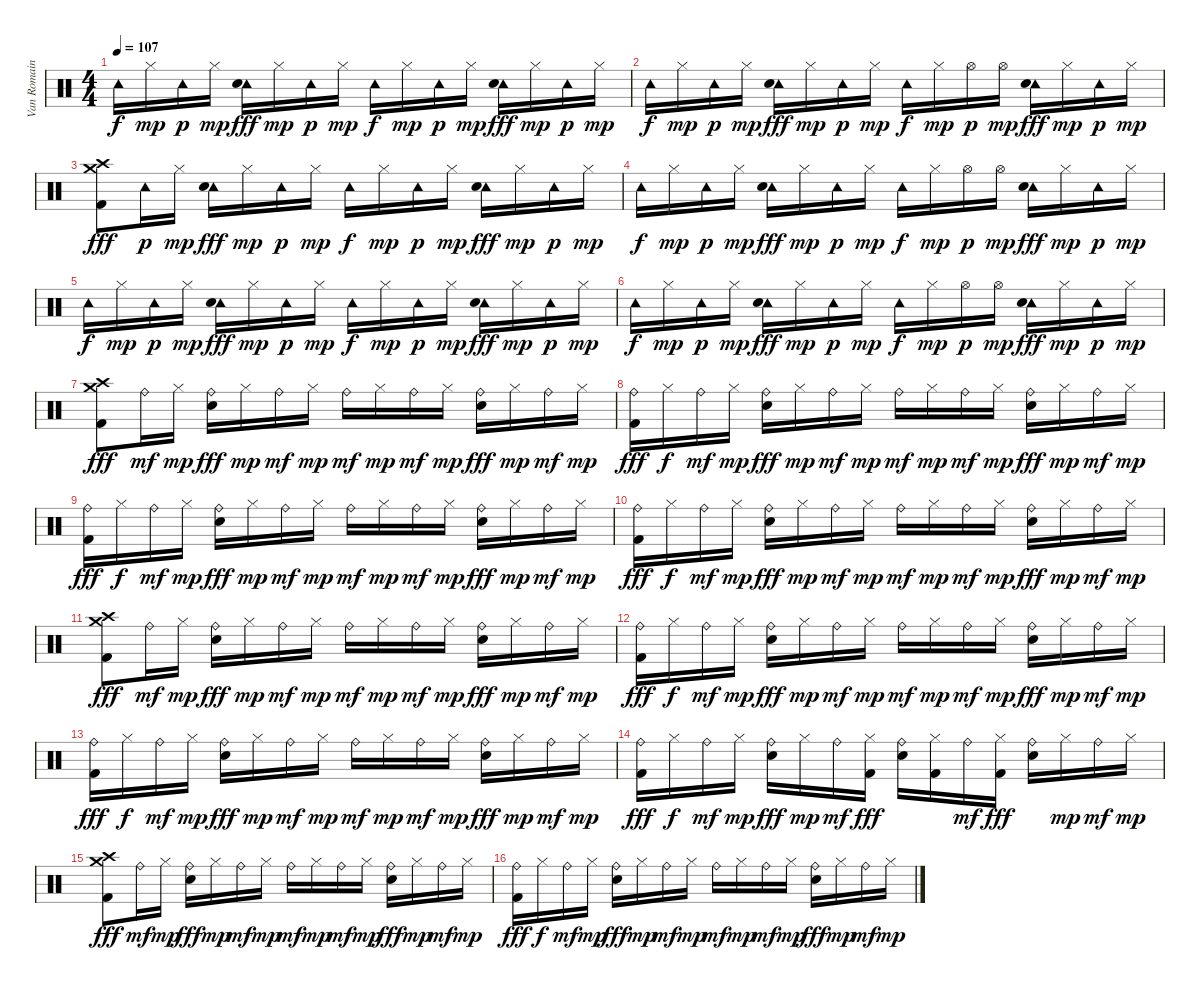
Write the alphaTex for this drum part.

\track ("Van Romaine" "Van Romain") {instrument percussion}
\staff {score}
\articulation defaults
\ts (4 4)
\tempo 107
\clef neutral
\ks c "Tambourine (hit)".16{dy f} "Hi-Hat (closed)".16{dy mp} "Tambourine (hit)".16{dy p} "Hi-Hat (closed)".16{dy mp}
("Tambourine (hit)" "Electric Snare (hit)").16{dy fff} "Hi-Hat (closed)".16{dy mp} "Tambourine (hit)".16{dy p} "Hi-Hat (closed)".16{dy mp} "Tambourine (hit)".16{dy f} "Hi-Hat (closed)".16{dy mp} "Tambourine (hit)".16{dy p} "Hi-Hat (closed)".16{dy mp} ("Tambourine (hit)" "Electric Snare (hit)").16{dy fff} "Hi-Hat (closed)".16{dy mp} "Tambourine (hit)".16{dy p} "Hi-Hat (closed)".16{dy mp} |
"Tambourine (hit)".16{dy f} "Hi-Hat (closed)".16{dy mp} "Tambourine (hit)".16{dy p} "Hi-Hat (closed)".16{dy mp} ("Tambourine (hit)" "Electric Snare (hit)").16{dy fff} "Hi-Hat (closed)".16{dy mp} "Tambourine (hit)".16{dy p} "Hi-Hat (closed)".16{dy mp} "Tambourine (hit)".16{dy f} "Hi-Hat (closed)".16{dy mp} "Hi-Hat (open)".16{dy p} "Hi-Hat (open)".16{dy mp} ("Tambourine (hit)" "Electric Snare (hit)").16{dy fff} "Hi-Hat (closed)".16{dy mp} "Tambourine (hit)".16{dy p} "Hi-Hat (closed)".16{dy mp} |
("Crash medium (hit)" "Crash high (hit)" "Kick (hit) 2").8{dy fff} "Tambourine (hit)".16{dy p} "Hi-Hat (closed)".16{dy mp} ("Tambourine (hit)" "Electric Snare (hit)").16{dy fff} "Hi-Hat (closed)".16{dy mp} "Tambourine (hit)".16{dy p} "Hi-Hat (closed)".16{dy mp} "Tambourine (hit)".16{dy f} "Hi-Hat (closed)".16{dy mp} "Tambourine (hit)".16{dy p} "Hi-Hat (closed)".16{dy mp} ("Tambourine (hit)" "Electric Snare (hit)").16{dy fff} "Hi-Hat (closed)".16{dy mp} "Tambourine (hit)".16{dy p} "Hi-Hat (closed)".16{dy mp} |
"Tambourine (hit)".16{dy f} "Hi-Hat (closed)".16{dy mp} "Tambourine (hit)".16{dy p} "Hi-Hat (closed)".16{dy mp} ("Tambourine (hit)" "Electric Snare (hit)").16{dy fff} "Hi-Hat (closed)".16{dy mp} "Tambourine (hit)".16{dy p} "Hi-Hat (closed)".16{dy mp} "Tambourine (hit)".16{dy f} "Hi-Hat (closed)".16{dy mp} "Hi-Hat (open)".16{dy p} "Hi-Hat (open)".16{dy mp} ("Tambourine (hit)" "Electric Snare (hit)").16{dy fff} "Hi-Hat (closed)".16{dy mp} "Tambourine (hit)".16{dy p} "Hi-Hat (closed)".16{dy mp} |
"Tambourine (hit)".16{dy f} "Hi-Hat (closed)".16{dy mp} "Tambourine (hit)".16{dy p} "Hi-Hat (closed)".16{dy mp} ("Tambourine (hit)" "Electric Snare (hit)").16{dy fff} "Hi-Hat (closed)".16{dy mp} "Tambourine (hit)".16{dy p} "Hi-Hat (closed)".16{dy mp} "Tambourine (hit)".16{dy f} "Hi-Hat (closed)".16{dy mp} "Tambourine (hit)".16{dy p} "Hi-Hat (closed)".16{dy mp} ("Tambourine (hit)" "Electric Snare (hit)").16{dy fff} "Hi-Hat (closed)".16{dy mp} "Tambourine (hit)".16{dy p} "Hi-Hat (closed)".16{dy mp} |
"Tambourine (hit)".16{dy f} "Hi-Hat (closed)".16{dy mp} "Tambourine (hit)".16{dy p} "Hi-Hat (closed)".16{dy mp} ("Tambourine (hit)" "Electric Snare (hit)").16{dy fff} "Hi-Hat (closed)".16{dy mp} "Tambourine (hit)".16{dy p} "Hi-Hat (closed)".16{dy mp} "Tambourine (hit)".16{dy f} "Hi-Hat (closed)".16{dy mp} "Hi-Hat (open)".16{dy p} "Hi-Hat (open)".16{dy mp} ("Tambourine (hit)" "Electric Snare (hit)").16{dy fff} "Hi-Hat (closed)".16{dy mp} "Tambourine (hit)".16{dy p} "Hi-Hat (closed)".16{dy mp} |
("Crash medium (hit)" "Crash high (hit)" "Kick (hit) 2").8{dy fff} "Ride (bell)".16{dy mf} "Hi-Hat (closed)".16{dy mp} ("Ride (bell)" "Electric Snare (hit)").16{dy fff} "Hi-Hat (closed)".16{dy mp} "Ride (bell)".16{dy mf} "Hi-Hat (closed)".16{dy mp} "Ride (bell)".16{dy mf} "Hi-Hat (closed)".16{dy mp} "Ride (bell)".16{dy mf} "Hi-Hat (closed)".16{dy mp} ("Ride (bell)" "Electric Snare (hit)").16{dy fff} "Hi-Hat (closed)".16{dy mp} "Ride (bell)".16{dy mf} "Hi-Hat (closed)".16{dy mp} |
("Ride (bell)" "Kick (hit) 2").16{dy fff} "Hi-Hat (closed)".16{dy f} "Ride (bell)".16{dy mf} "Hi-Hat (closed)".16{dy mp} ("Ride (bell)" "Electric Snare (hit)").16{dy fff} "Hi-Hat (closed)".16{dy mp} "Ride (bell)".16{dy mf} "Hi-Hat (closed)".16{dy mp} "Ride (bell)".16{dy mf} "Hi-Hat (closed)".16{dy mp} "Ride (bell)".16{dy mf} "Hi-Hat (closed)".16{dy mp} ("Ride (bell)" "Electric Snare (hit)").16{dy fff} "Hi-Hat (closed)".16{dy mp} "Ride (bell)".16{dy mf} "Hi-Hat (closed)".16{dy mp} |
("Ride (bell)" "Kick (hit) 2").16{dy fff} "Hi-Hat (closed)".16{dy f} "Ride (bell)".16{dy mf} "Hi-Hat (closed)".16{dy mp} ("Ride (bell)" "Electric Snare (hit)").16{dy fff} "Hi-Hat (closed)".16{dy mp} "Ride (bell)".16{dy mf} "Hi-Hat (closed)".16{dy mp} "Ride (bell)".16{dy mf} "Hi-Hat (closed)".16{dy mp} "Ride (bell)".16{dy mf} "Hi-Hat (closed)".16{dy mp} ("Ride (bell)" "Electric Snare (hit)").16{dy fff} "Hi-Hat (closed)".16{dy mp} "Ride (bell)".16{dy mf} "Hi-Hat (closed)".16{dy mp} |
("Ride (bell)" "Kick (hit) 2").16{dy fff} "Hi-Hat (closed)".16{dy f} "Ride (bell)".16{dy mf} "Hi-Hat (closed)".16{dy mp} ("Ride (bell)" "Electric Snare (hit)").16{dy fff} "Hi-Hat (closed)".16{dy mp} "Ride (bell)".16{dy mf} "Hi-Hat (closed)".16{dy mp} "Ride (bell)".16{dy mf} "Hi-Hat (closed)".16{dy mp} "Ride (bell)".16{dy mf} "Hi-Hat (closed)".16{dy mp} ("Ride (bell)" "Electric Snare (hit)").16{dy fff} "Hi-Hat (closed)".16{dy mp} "Ride (bell)".16{dy mf} "Hi-Hat (closed)".16{dy mp} |
("Crash medium (hit)" "Crash high (hit)" "Kick (hit) 2").8{dy fff} "Ride (bell)".16{dy mf} "Hi-Hat (closed)".16{dy mp} ("Ride (bell)" "Electric Snare (hit)").16{dy fff} "Hi-Hat (closed)".16{dy mp} "Ride (bell)".16{dy mf} "Hi-Hat (closed)".16{dy mp} "Ride (bell)".16{dy mf} "Hi-Hat (closed)".16{dy mp} "Ride (bell)".16{dy mf} "Hi-Hat (closed)".16{dy mp} ("Ride (bell)" "Electric Snare (hit)").16{dy fff} "Hi-Hat (closed)".16{dy mp} "Ride (bell)".16{dy mf} "Hi-Hat (closed)".16{dy mp} |
("Ride (bell)" "Kick (hit) 2").16{dy fff} "Hi-Hat (closed)".16{dy f} "Ride (bell)".16{dy mf} "Hi-Hat (closed)".16{dy mp} ("Ride (bell)" "Electric Snare (hit)").16{dy fff} "Hi-Hat (closed)".16{dy mp} "Ride (bell)".16{dy mf} "Hi-Hat (closed)".16{dy mp} "Ride (bell)".16{dy mf} "Hi-Hat (closed)".16{dy mp} "Ride (bell)".16{dy mf} "Hi-Hat (closed)".16{dy mp} ("Ride (bell)" "Electric Snare (hit)").16{dy fff} "Hi-Hat (closed)".16{dy mp} "Ride (bell)".16{dy mf} "Hi-Hat (closed)".16{dy mp} |
("Ride (bell)" "Kick (hit) 2").16{dy fff} "Hi-Hat (closed)".16{dy f} "Ride (bell)".16{dy mf} "Hi-Hat (closed)".16{dy mp} ("Ride (bell)" "Electric Snare (hit)").16{dy fff} "Hi-Hat (closed)".16{dy mp} "Ride (bell)".16{dy mf} "Hi-Hat (closed)".16{dy mp} "Ride (bell)".16{dy mf} "Hi-Hat (closed)".16{dy mp} "Ride (bell)".16{dy mf} "Hi-Hat (closed)".16{dy mp} ("Ride (bell)" "Electric Snare (hit)").16{dy fff} "Hi-Hat (closed)".16{dy mp} "Ride (bell)".16{dy mf} "Hi-Hat (closed)".16{dy mp} |
("Ride (bell)" "Kick (hit) 2").16{dy fff} "Hi-Hat (closed)".16{dy f} "Ride (bell)".16{dy mf} "Hi-Hat (closed)".16{dy mp} ("Ride (bell)" "Electric Snare (hit)").16{dy fff} "Hi-Hat (closed)".16{dy mp} "Ride (bell)".16{dy mf} ("Hi-Hat (closed)" "Kick (hit) 2").16{dy fff} ("Ride (bell)" "Electric Snare (hit)").16 ("Hi-Hat (closed)" "Kick (hit) 2").16 "Ride (bell)".16{dy mf} ("Hi-Hat (closed)" "Kick (hit) 2").16{dy fff} ("Ride (bell)" "Electric Snare (hit)").16 "Hi-Hat (closed)".16{dy mp} "Ride (bell)".16{dy mf} "Hi-Hat (closed)".16{dy mp} |
("Crash medium (hit)" "Crash high (hit)" "Kick (hit) 2").8{dy fff} "Ride (bell)".16{dy mf} "Hi-Hat (closed)".16{dy mp} ("Ride (bell)" "Electric Snare (hit)").16{dy fff} "Hi-Hat (closed)".16{dy mp} "Ride (bell)".16{dy mf} "Hi-Hat (closed)".16{dy mp} "Ride (bell)".16{dy mf} "Hi-Hat (closed)".16{dy mp} "Ride (bell)".16{dy mf} "Hi-Hat (closed)".16{dy mp} ("Ride (bell)" "Electric Snare (hit)").16{dy fff} "Hi-Hat (closed)".16{dy mp} "Ride (bell)".16{dy mf} "Hi-Hat (closed)".16{dy mp} |
("Ride (bell)" "Kick (hit) 2").16{dy fff} "Hi-Hat (closed)".16{dy f} "Ride (bell)".16{dy mf} "Hi-Hat (closed)".16{dy mp} ("Ride (bell)" "Electric Snare (hit)").16{dy fff} "Hi-Hat (closed)".16{dy mp} "Ride (bell)".16{dy mf} "Hi-Hat (closed)".16{dy mp} "Ride (bell)".16{dy mf} "Hi-Hat (closed)".16{dy mp} "Ride (bell)".16{dy mf} "Hi-Hat (closed)".16{dy mp} ("Ride (bell)" "Electric Snare (hit)").16{dy fff} "Hi-Hat (closed)".16{dy mp} "Ride (bell)".16{dy mf} "Hi-Hat (closed)".16{dy mp}
